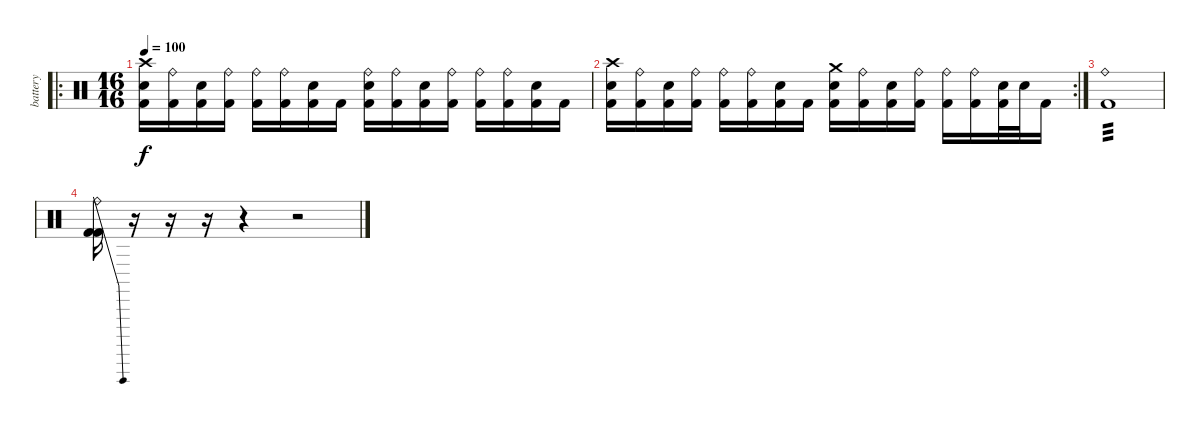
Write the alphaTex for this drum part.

\track ("battery" "battery") {instrument percussion}
\staff {score}
\articulation defaults
\ro
\ts (16 16)
\tempo 100
\clef neutral
\ks c
("Crash high (hit)" "Snare (hit) 2" "Kick (hit) 2").16{dy f} ("Ride (bell)" "Kick (hit) 2").16 ("Snare (hit) 2" "Kick (hit) 2").16 ("Ride (bell)" "Kick (hit) 2").16 ("Ride (bell)" "Kick (hit) 2").16 ("Ride (bell)" "Kick (hit) 2").16 ("Snare (hit) 2" "Kick (hit) 2").16 "Kick (hit) 2".16 ("Ride (bell)" "Snare (hit) 2" "Kick (hit) 2").16 ("Ride (bell)" "Kick (hit) 2").16 ("Snare (hit) 2" "Kick (hit) 2").16 ("Ride (bell)" "Kick (hit) 2").16 ("Ride (bell)" "Kick (hit) 2").16 ("Ride (bell)" "Kick (hit) 2").16 ("Snare (hit) 2" "Kick (hit) 2").16 "Kick (hit) 2".16 |
\rc 2
("Crash high (hit)" "Snare (hit) 2" "Kick (hit) 2").16 ("Ride (bell)" "Kick (hit) 2").16 ("Snare (hit) 2" "Kick (hit) 2").16 ("Ride (bell)" "Kick (hit) 2").16 ("Ride (bell)" "Kick (hit) 2").16 ("Ride (bell)" "Kick (hit) 2").16 ("Snare (hit) 2" "Kick (hit) 2").16 "Kick (hit) 2".16 ("Crash medium (hit)" "Snare (hit) 2" "Kick (hit) 2").16 ("Ride (bell)" "Kick (hit) 2").16 ("Snare (hit) 2" "Kick (hit) 2").16 ("Ride (bell)" "Kick (hit) 2").16 ("Ride (bell)" "Kick (hit) 2").16 ("Ride (bell)" "Kick (hit) 2").16 ("Snare (hit) 2" "Kick (hit) 2").32 "Snare (hit) 2".32 "Kick (hit) 2".16 |
("Ride (bell)" "Kick (hit) 2").1{tp 3} |
("Ride (bell)"{be (bend 0 0 60 12)} "Kick (hit) 2" "Kick (hit) 2").16 r.16 r.16 r.16 r.4 r.2
